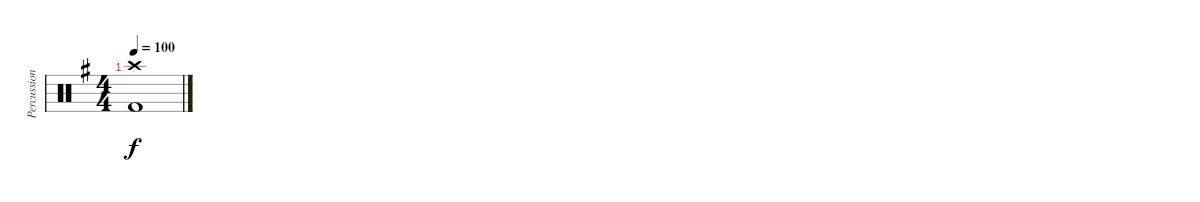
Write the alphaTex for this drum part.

\track ("Percussion" "Percussion") {instrument percussion}
\staff {score}
\articulation defaults
\ts (4 4)
\tempo 100
\clef neutral
\ks g
("Crash high (hit)" "Kick (hit) 2").1{dy f}
